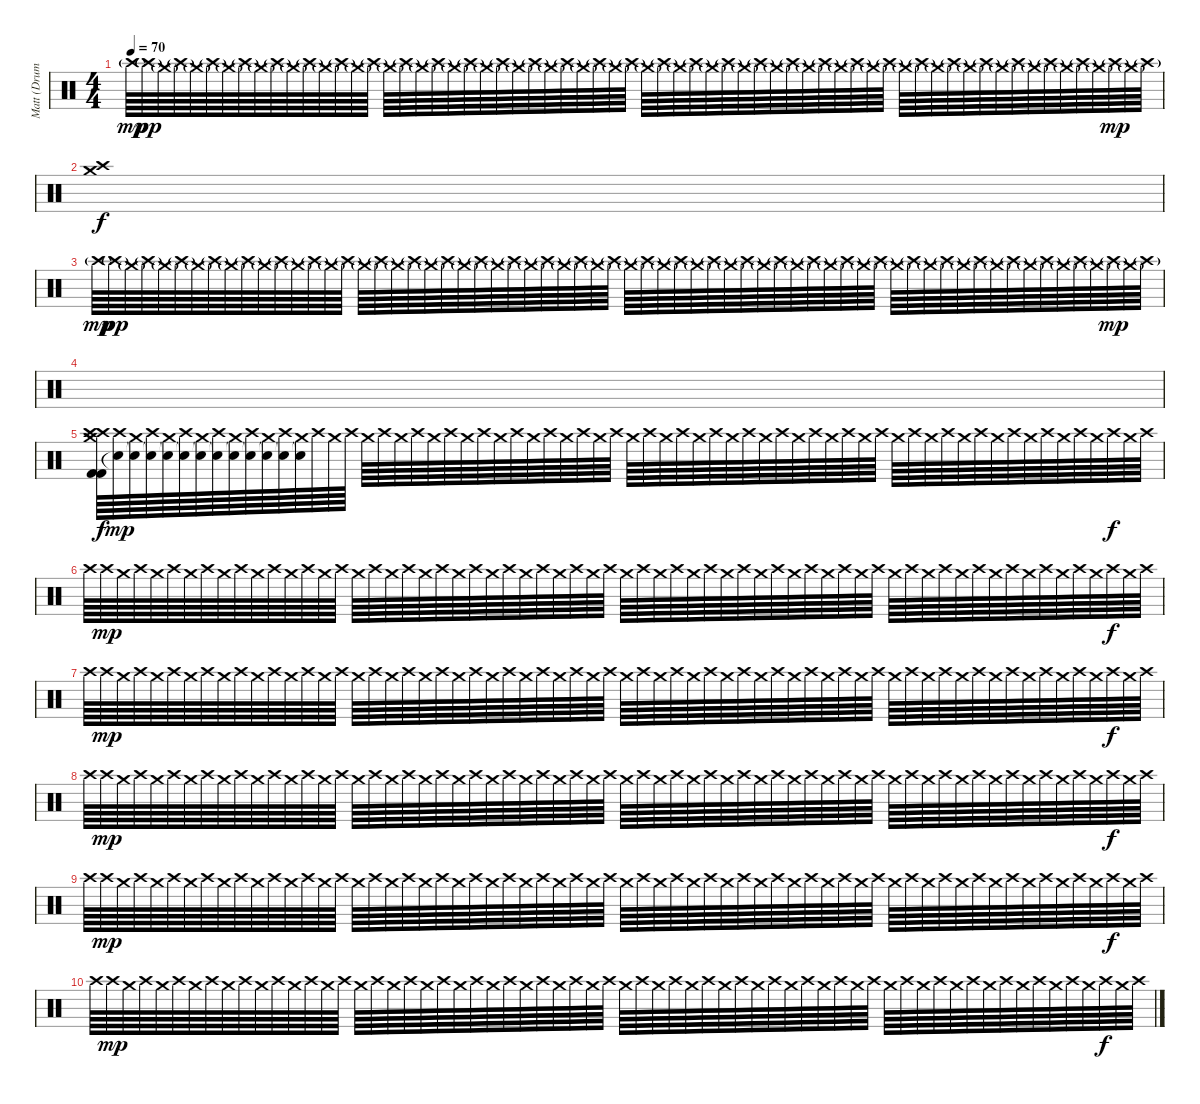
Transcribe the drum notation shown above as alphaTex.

\track ("Matt (Drums)" "Matt (Drum") {instrument percussion}
\staff {score}
\articulation defaults
\ts (4 4)
\tempo 70
\clef neutral
\ks c "Crash high (hit)"{g}.64{dy mp} "Crash high (hit)"{g}.64{dy pp} "Crash medium (hit)"{g}.64 "Crash high (hit)"{g}.64 "Crash medium (hit)"{g}.64 "Crash high (hit)"{g}.64 "Crash medium (hit)"{g}.64 "Crash high (hit)"{g}.64 "Crash medium (hit)"{g}.64 "Crash high (hit)"{g}.64 "Crash medium (hit)"{g}.64 "Crash high (hit)"{g}.64 "Crash medium (hit)"{g}.64 "Crash high (hit)"{g}.64 "Crash medium (hit)"{g}.64 "Crash high (hit)"{g}.64 "Crash medium (hit)"{g}.64 "Crash high (hit)"{g}.64 "Crash medium (hit)"{g}.64 "Crash high (hit)"{g}.64 "Crash medium (hit)"{g}.64 "Crash high (hit)"{g}.64 "Crash medium (hit)"{g}.64 "Crash high (hit)"{g}.64 "Crash medium (hit)"{g}.64 "Crash high (hit)"{g}.64 "Crash medium (hit)"{g}.64 "Crash high (hit)"{g}.64 "Crash medium (hit)"{g}.64 "Crash high (hit)"{g}.64 "Crash medium (hit)"{g}.64 "Crash high (hit)"{g}.64 "Crash medium (hit)"{g}.64 "Crash high (hit)"{g}.64 "Crash medium (hit)"{g}.64 "Crash high (hit)"{g}.64 "Crash medium (hit)"{g}.64 "Crash high (hit)"{g}.64 "Crash medium (hit)"{g}.64 "Crash high (hit)"{g}.64 "Crash medium (hit)"{g}.64 "Crash high (hit)"{g}.64 "Crash medium (hit)"{g}.64 "Crash high (hit)"{g}.64 "Crash medium (hit)"{g}.64 "Crash high (hit)"{g}.64 "Crash medium (hit)"{g}.64 "Crash high (hit)"{g}.64 "Crash medium (hit)"{g}.64 "Crash high (hit)"{g}.64 "Crash medium (hit)"{g}.64 "Crash high (hit)"{g}.64 "Crash medium (hit)"{g}.64 "Crash high (hit)"{g}.64 "Crash medium (hit)"{g}.64 "Crash high (hit)"{g}.64 "Crash medium (hit)"{g}.64 "Crash high (hit)"{g}.64 "Crash medium (hit)"{g}.64 "Crash high (hit)"{g}.64 "Crash medium (hit)"{g}.64 "Crash high (hit)"{g}.64{dy mp} "Crash medium (hit)"{g}.64 "Crash high (hit)"{g}.64
|
("Crash medium (hit)" "Crash high (hit)").1{dy f} |
"Crash high (hit)"{g}.64{dy mp} "Crash high (hit)"{g}.64{dy pp} "Crash medium (hit)"{g}.64 "Crash high (hit)"{g}.64 "Crash medium (hit)"{g}.64 "Crash high (hit)"{g}.64 "Crash medium (hit)"{g}.64 "Crash high (hit)"{g}.64 "Crash medium (hit)"{g}.64 "Crash high (hit)"{g}.64 "Crash medium (hit)"{g}.64 "Crash high (hit)"{g}.64 "Crash medium (hit)"{g}.64 "Crash high (hit)"{g}.64 "Crash medium (hit)"{g}.64 "Crash high (hit)"{g}.64 "Crash medium (hit)"{g}.64 "Crash high (hit)"{g}.64 "Crash medium (hit)"{g}.64 "Crash high (hit)"{g}.64 "Crash medium (hit)"{g}.64 "Crash high (hit)"{g}.64 "Crash medium (hit)"{g}.64 "Crash high (hit)"{g}.64 "Crash medium (hit)"{g}.64 "Crash high (hit)"{g}.64 "Crash medium (hit)"{g}.64 "Crash high (hit)"{g}.64 "Crash medium (hit)"{g}.64 "Crash high (hit)"{g}.64 "Crash medium (hit)"{g}.64 "Crash high (hit)"{g}.64 "Crash medium (hit)"{g}.64 "Crash high (hit)"{g}.64 "Crash medium (hit)"{g}.64 "Crash high (hit)"{g}.64 "Crash medium (hit)"{g}.64 "Crash high (hit)"{g}.64 "Crash medium (hit)"{g}.64 "Crash high (hit)"{g}.64 "Crash medium (hit)"{g}.64 "Crash high (hit)"{g}.64 "Crash medium (hit)"{g}.64 "Crash high (hit)"{g}.64 "Crash medium (hit)"{g}.64 "Crash high (hit)"{g}.64 "Crash medium (hit)"{g}.64 "Crash high (hit)"{g}.64 "Crash medium (hit)"{g}.64 "Crash high (hit)"{g}.64 "Crash medium (hit)"{g}.64 "Crash high (hit)"{g}.64 "Crash medium (hit)"{g}.64 "Crash high (hit)"{g}.64 "Crash medium (hit)"{g}.64 "Crash high (hit)"{g}.64 "Crash medium (hit)"{g}.64 "Crash high (hit)"{g}.64 "Crash medium (hit)"{g}.64 "Crash high (hit)"{g}.64 "Crash medium (hit)"{g}.64 "Crash high (hit)"{g}.64{dy mp} "Crash medium (hit)"{g}.64 "Crash high (hit)"{g}.64 |
|
("Crash high (hit)" "Kick (hit) 2" "Kick (hit) 2" "Crash high (hit)" "Crash medium (hit)").64{dy f} ("Crash high (hit)" "Snare (hit)"{t}).64{dy mp} ("Crash medium (hit)" "Snare (hit)"{t}).64 ("Crash high (hit)" "Snare (hit)"{t}).64 ("Crash medium (hit)" "Snare (hit)"{t}).64 ("Crash high (hit)" "Snare (hit)"{t}).64 ("Crash medium (hit)" "Snare (hit)"{t}).64 ("Crash high (hit)" "Snare (hit)"{t}).64 ("Crash medium (hit)" "Snare (hit)"{t}).64 ("Crash high (hit)" "Snare (hit)"{t}).64 ("Crash medium (hit)" "Snare (hit)"{t}).64 ("Crash high (hit)" "Snare (hit)"{t}).64 ("Crash medium (hit)" "Snare (hit)"{t}).64 "Crash high (hit)".64 "Crash medium (hit)".64 "Crash high (hit)".64 "Crash medium (hit)".64 "Crash high (hit)".64 "Crash medium (hit)".64 "Crash high (hit)".64 "Crash medium (hit)".64 "Crash high (hit)".64 "Crash medium (hit)".64 "Crash high (hit)".64 "Crash medium (hit)".64 "Crash high (hit)".64 "Crash medium (hit)".64 "Crash high (hit)".64 "Crash medium (hit)".64 "Crash high (hit)".64 "Crash medium (hit)".64 "Crash high (hit)".64 "Crash medium (hit)".64 "Crash high (hit)".64 "Crash medium (hit)".64 "Crash high (hit)".64 "Crash medium (hit)".64 "Crash high (hit)".64 "Crash medium (hit)".64 "Crash high (hit)".64 "Crash medium (hit)".64 "Crash high (hit)".64 "Crash medium (hit)".64 "Crash high (hit)".64 "Crash medium (hit)".64 "Crash high (hit)".64 "Crash medium (hit)".64 "Crash high (hit)".64 "Crash medium (hit)".64 "Crash high (hit)".64 "Crash medium (hit)".64 "Crash high (hit)".64 "Crash medium (hit)".64 "Crash high (hit)".64 "Crash medium (hit)".64 "Crash high (hit)".64 "Crash medium (hit)".64 "Crash high (hit)".64 "Crash medium (hit)".64 "Crash high (hit)".64 "Crash medium (hit)".64 "Crash high (hit)".64{dy f} "Crash medium (hit)".64 "Crash high (hit)".64 |
"Crash high (hit)".64 "Crash high (hit)".64{dy mp} "Crash medium (hit)".64 "Crash high (hit)".64 "Crash medium (hit)".64 "Crash high (hit)".64 "Crash medium (hit)".64 "Crash high (hit)".64 "Crash medium (hit)".64 "Crash high (hit)".64 "Crash medium (hit)".64 "Crash high (hit)".64 "Crash medium (hit)".64 "Crash high (hit)".64 "Crash medium (hit)".64 "Crash high (hit)".64 "Crash medium (hit)".64 "Crash high (hit)".64 "Crash medium (hit)".64 "Crash high (hit)".64 "Crash medium (hit)".64 "Crash high (hit)".64 "Crash medium (hit)".64 "Crash high (hit)".64 "Crash medium (hit)".64 "Crash high (hit)".64 "Crash medium (hit)".64 "Crash high (hit)".64 "Crash medium (hit)".64 "Crash high (hit)".64 "Crash medium (hit)".64 "Crash high (hit)".64 "Crash medium (hit)".64 "Crash high (hit)".64 "Crash medium (hit)".64 "Crash high (hit)".64 "Crash medium (hit)".64 "Crash high (hit)".64 "Crash medium (hit)".64 "Crash high (hit)".64 "Crash medium (hit)".64 "Crash high (hit)".64 "Crash medium (hit)".64 "Crash high (hit)".64 "Crash medium (hit)".64 "Crash high (hit)".64 "Crash medium (hit)".64 "Crash high (hit)".64 "Crash medium (hit)".64 "Crash high (hit)".64 "Crash medium (hit)".64 "Crash high (hit)".64 "Crash medium (hit)".64 "Crash high (hit)".64 "Crash medium (hit)".64 "Crash high (hit)".64 "Crash medium (hit)".64 "Crash high (hit)".64 "Crash medium (hit)".64 "Crash high (hit)".64 "Crash medium (hit)".64 "Crash high (hit)".64{dy f} "Crash medium (hit)".64 "Crash high (hit)".64 |
"Crash high (hit)".64 "Crash high (hit)".64{dy mp} "Crash medium (hit)".64 "Crash high (hit)".64 "Crash medium (hit)".64 "Crash high (hit)".64 "Crash medium (hit)".64 "Crash high (hit)".64 "Crash medium (hit)".64 "Crash high (hit)".64 "Crash medium (hit)".64 "Crash high (hit)".64 "Crash medium (hit)".64 "Crash high (hit)".64 "Crash medium (hit)".64 "Crash high (hit)".64 "Crash medium (hit)".64 "Crash high (hit)".64 "Crash medium (hit)".64 "Crash high (hit)".64 "Crash medium (hit)".64 "Crash high (hit)".64 "Crash medium (hit)".64 "Crash high (hit)".64 "Crash medium (hit)".64 "Crash high (hit)".64 "Crash medium (hit)".64 "Crash high (hit)".64 "Crash medium (hit)".64 "Crash high (hit)".64 "Crash medium (hit)".64 "Crash high (hit)".64 "Crash medium (hit)".64 "Crash high (hit)".64 "Crash medium (hit)".64 "Crash high (hit)".64 "Crash medium (hit)".64 "Crash high (hit)".64 "Crash medium (hit)".64 "Crash high (hit)".64 "Crash medium (hit)".64 "Crash high (hit)".64 "Crash medium (hit)".64 "Crash high (hit)".64 "Crash medium (hit)".64 "Crash high (hit)".64 "Crash medium (hit)".64 "Crash high (hit)".64 "Crash medium (hit)".64 "Crash high (hit)".64 "Crash medium (hit)".64 "Crash high (hit)".64 "Crash medium (hit)".64 "Crash high (hit)".64 "Crash medium (hit)".64 "Crash high (hit)".64 "Crash medium (hit)".64 "Crash high (hit)".64 "Crash medium (hit)".64 "Crash high (hit)".64 "Crash medium (hit)".64 "Crash high (hit)".64{dy f} "Crash medium (hit)".64 "Crash high (hit)".64 |
"Crash high (hit)".64 "Crash high (hit)".64{dy mp} "Crash medium (hit)".64 "Crash high (hit)".64 "Crash medium (hit)".64 "Crash high (hit)".64 "Crash medium (hit)".64 "Crash high (hit)".64 "Crash medium (hit)".64 "Crash high (hit)".64 "Crash medium (hit)".64 "Crash high (hit)".64 "Crash medium (hit)".64 "Crash high (hit)".64 "Crash medium (hit)".64 "Crash high (hit)".64 "Crash medium (hit)".64 "Crash high (hit)".64 "Crash medium (hit)".64 "Crash high (hit)".64 "Crash medium (hit)".64 "Crash high (hit)".64 "Crash medium (hit)".64 "Crash high (hit)".64 "Crash medium (hit)".64 "Crash high (hit)".64 "Crash medium (hit)".64 "Crash high (hit)".64 "Crash medium (hit)".64 "Crash high (hit)".64 "Crash medium (hit)".64 "Crash high (hit)".64 "Crash medium (hit)".64 "Crash high (hit)".64 "Crash medium (hit)".64 "Crash high (hit)".64 "Crash medium (hit)".64 "Crash high (hit)".64 "Crash medium (hit)".64 "Crash high (hit)".64 "Crash medium (hit)".64 "Crash high (hit)".64 "Crash medium (hit)".64 "Crash high (hit)".64 "Crash medium (hit)".64 "Crash high (hit)".64 "Crash medium (hit)".64 "Crash high (hit)".64 "Crash medium (hit)".64 "Crash high (hit)".64 "Crash medium (hit)".64 "Crash high (hit)".64 "Crash medium (hit)".64 "Crash high (hit)".64 "Crash medium (hit)".64 "Crash high (hit)".64 "Crash medium (hit)".64 "Crash high (hit)".64 "Crash medium (hit)".64 "Crash high (hit)".64 "Crash medium (hit)".64 "Crash high (hit)".64{dy f} "Crash medium (hit)".64 "Crash high (hit)".64 |
"Crash high (hit)".64 "Crash high (hit)".64{dy mp} "Crash medium (hit)".64 "Crash high (hit)".64 "Crash medium (hit)".64 "Crash high (hit)".64 "Crash medium (hit)".64 "Crash high (hit)".64 "Crash medium (hit)".64 "Crash high (hit)".64 "Crash medium (hit)".64 "Crash high (hit)".64 "Crash medium (hit)".64 "Crash high (hit)".64 "Crash medium (hit)".64 "Crash high (hit)".64 "Crash medium (hit)".64 "Crash high (hit)".64 "Crash medium (hit)".64 "Crash high (hit)".64 "Crash medium (hit)".64 "Crash high (hit)".64 "Crash medium (hit)".64 "Crash high (hit)".64 "Crash medium (hit)".64 "Crash high (hit)".64 "Crash medium (hit)".64 "Crash high (hit)".64 "Crash medium (hit)".64 "Crash high (hit)".64 "Crash medium (hit)".64 "Crash high (hit)".64 "Crash medium (hit)".64 "Crash high (hit)".64 "Crash medium (hit)".64 "Crash high (hit)".64 "Crash medium (hit)".64 "Crash high (hit)".64 "Crash medium (hit)".64 "Crash high (hit)".64 "Crash medium (hit)".64 "Crash high (hit)".64 "Crash medium (hit)".64 "Crash high (hit)".64 "Crash medium (hit)".64 "Crash high (hit)".64 "Crash medium (hit)".64 "Crash high (hit)".64 "Crash medium (hit)".64 "Crash high (hit)".64 "Crash medium (hit)".64 "Crash high (hit)".64 "Crash medium (hit)".64 "Crash high (hit)".64 "Crash medium (hit)".64 "Crash high (hit)".64 "Crash medium (hit)".64 "Crash high (hit)".64 "Crash medium (hit)".64 "Crash high (hit)".64 "Crash medium (hit)".64 "Crash high (hit)".64{dy f} "Crash medium (hit)".64 "Crash high (hit)".64 |
"Crash high (hit)".64 "Crash high (hit)".64{dy mp} "Crash medium (hit)".64 "Crash high (hit)".64 "Crash medium (hit)".64 "Crash high (hit)".64 "Crash medium (hit)".64 "Crash high (hit)".64 "Crash medium (hit)".64 "Crash high (hit)".64 "Crash medium (hit)".64 "Crash high (hit)".64 "Crash medium (hit)".64 "Crash high (hit)".64 "Crash medium (hit)".64 "Crash high (hit)".64 "Crash medium (hit)".64 "Crash high (hit)".64 "Crash medium (hit)".64 "Crash high (hit)".64 "Crash medium (hit)".64 "Crash high (hit)".64 "Crash medium (hit)".64 "Crash high (hit)".64 "Crash medium (hit)".64 "Crash high (hit)".64 "Crash medium (hit)".64 "Crash high (hit)".64 "Crash medium (hit)".64 "Crash high (hit)".64 "Crash medium (hit)".64 "Crash high (hit)".64 "Crash medium (hit)".64 "Crash high (hit)".64 "Crash medium (hit)".64 "Crash high (hit)".64 "Crash medium (hit)".64 "Crash high (hit)".64 "Crash medium (hit)".64 "Crash high (hit)".64 "Crash medium (hit)".64 "Crash high (hit)".64 "Crash medium (hit)".64 "Crash high (hit)".64 "Crash medium (hit)".64 "Crash high (hit)".64 "Crash medium (hit)".64 "Crash high (hit)".64 "Crash medium (hit)".64 "Crash high (hit)".64 "Crash medium (hit)".64 "Crash high (hit)".64 "Crash medium (hit)".64 "Crash high (hit)".64 "Crash medium (hit)".64 "Crash high (hit)".64 "Crash medium (hit)".64 "Crash high (hit)".64 "Crash medium (hit)".64 "Crash high (hit)".64 "Crash medium (hit)".64 "Crash high (hit)".64{dy f} "Crash medium (hit)".64 "Crash high (hit)".64
